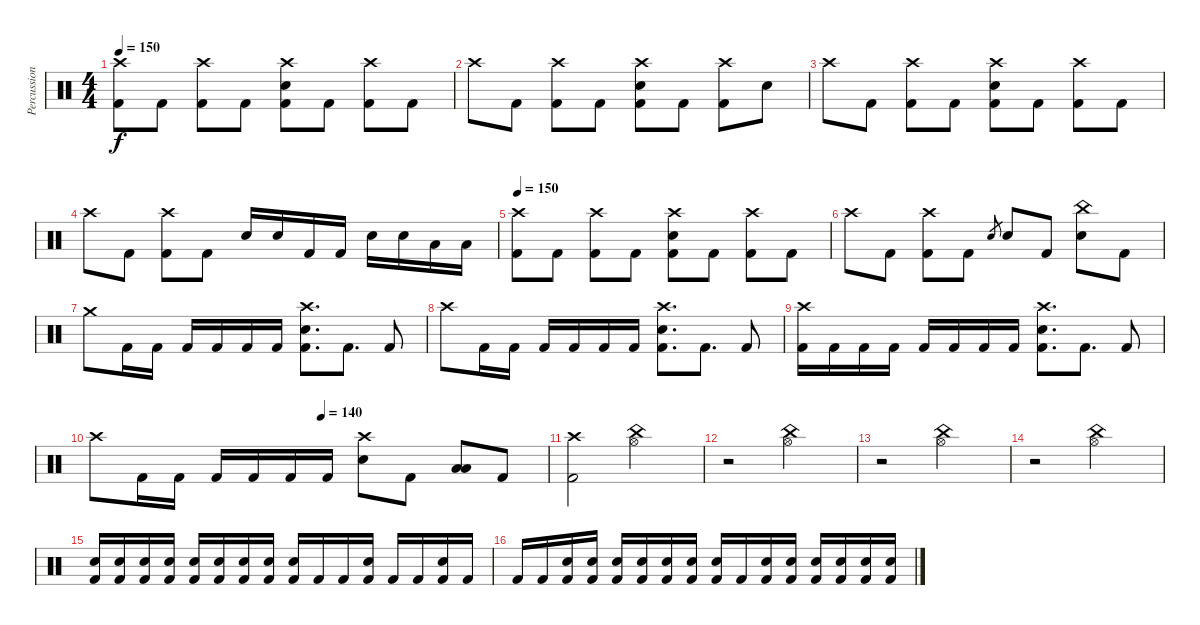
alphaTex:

\track ("Percussion" "Percussion") {instrument percussion}
\staff {score}
\articulation defaults
\ts (4 4)
\tempo 150
\clef neutral
\ks c
("Crash high (hit)" "Kick (hit) 2").8{dy f} "Kick (hit) 2".8 ("Crash high (hit)" "Kick (hit) 2").8 "Kick (hit) 2".8 ("Crash high (hit)" "Electric Snare (hit)" "Kick (hit) 2").8 "Kick (hit) 2".8 ("Crash high (hit)" "Kick (hit) 2").8 "Kick (hit) 2".8 |
"Crash high (hit)".8 "Kick (hit) 2".8 ("Crash high (hit)" "Kick (hit) 2").8 "Kick (hit) 2".8 ("Crash high (hit)" "Electric Snare (hit)" "Kick (hit) 2").8 "Kick (hit) 2".8 ("Crash high (hit)" "Kick (hit) 2").8 "Electric Snare (hit)".8 |
"Crash high (hit)".8 "Kick (hit) 2".8 ("Crash high (hit)" "Kick (hit) 2").8 "Kick (hit) 2".8 ("Crash high (hit)" "Electric Snare (hit)" "Kick (hit) 2").8 "Kick (hit) 2".8 ("Crash high (hit)" "Kick (hit) 2").8 "Kick (hit) 2".8 |
"Crash high (hit)".8 "Kick (hit) 2".8 ("Crash high (hit)" "Kick (hit) 2").8 "Kick (hit) 2".8 "Electric Snare (hit)".16 "Electric Snare (hit)".16 "Kick (hit) 2".16 "Kick (hit) 2".16 "Electric Snare (hit)".16 "Electric Snare (hit)".16 "Low Tom (hit)".16 "Low Tom (hit)".16 |
\tempo 150
("Crash high (hit)" "Kick (hit) 2").8 "Kick (hit) 2".8 ("Crash high (hit)" "Kick (hit) 2").8 "Kick (hit) 2".8 ("Crash high (hit)" "Electric Snare (hit)" "Kick (hit) 2").8 "Kick (hit) 2".8 ("Crash high (hit)" "Kick (hit) 2").8 "Kick (hit) 2".8 |
"Crash high (hit)".8 "Kick (hit) 2".8 ("Crash high (hit)" "Kick (hit) 2").8 "Kick (hit) 2".8 "Electric Snare (hit)".8{gr} "Electric Snare (hit)".8 "Kick (hit) 2".8 ("China (hit)" "Electric Snare (hit)").8 "Kick (hit) 2".8 |
"Crash medium (hit)".8 "Kick (hit) 2".16 "Kick (hit) 2".16 "Kick (hit) 2".16 "Kick (hit) 2".16 "Kick (hit) 2".16 "Kick (hit) 2".16 ("Crash high (hit)" "Electric Snare (hit)" "Kick (hit) 2").8{d} "Kick (hit) 2".8{d} "Kick (hit) 2".8 |
"Crash high (hit)".8 "Kick (hit) 2".16 "Kick (hit) 2".16 "Kick (hit) 2".16 "Kick (hit) 2".16 "Kick (hit) 2".16 "Kick (hit) 2".16 ("Crash high (hit)" "Electric Snare (hit)" "Kick (hit) 2").8{d} "Kick (hit) 2".8{d} "Kick (hit) 2".8 |
("Crash high (hit)" "Kick (hit) 2").16 "Kick (hit) 2".16 "Kick (hit) 2".16 "Kick (hit) 2".16 "Kick (hit) 2".16 "Kick (hit) 2".16 "Kick (hit) 2".16 "Kick (hit) 2".16 ("Crash high (hit)" "Electric Snare (hit)" "Kick (hit) 2").8{d} "Kick (hit) 2".8{d} "Kick (hit) 2".8 |
\tempo (140 0.5)
"Crash high (hit)".8 "Kick (hit) 2".16 "Kick (hit) 2".16 "Kick (hit) 2".16 "Kick (hit) 2".16 "Kick (hit) 2".16 "Kick (hit) 2".16 ("Crash high (hit)" "Electric Snare (hit)").8 "Kick (hit) 2".8 ("Low Tom (hit)" "Low Floor Tom (hit)").8 "Kick (hit) 2".8 |
("Crash high (hit)" "Kick (hit) 2").2 ("China (hit)" "Hi-Hat (open)").2 |
r.2 ("China (hit)" "Hi-Hat (open)").2 |
r.2 ("China (hit)" "Hi-Hat (open)").2 |
r.2 ("China (hit)" "Hi-Hat (open)").2 |
("Electric Snare (hit)" "Kick (hit) 2").16 ("Electric Snare (hit)" "Kick (hit) 2").16 ("Electric Snare (hit)" "Kick (hit) 2").16 ("Electric Snare (hit)" "Kick (hit) 2").16 ("Electric Snare (hit)" "Kick (hit) 2").16 ("Electric Snare (hit)" "Kick (hit) 2").16 ("Electric Snare (hit)" "Kick (hit) 2").16 ("Electric Snare (hit)" "Kick (hit) 2").16 ("Electric Snare (hit)" "Kick (hit) 2").16 "Kick (hit) 2".16 "Kick (hit) 2".16 ("Electric Snare (hit)" "Kick (hit) 2").16 "Kick (hit) 2".16 "Kick (hit) 2".16 ("Electric Snare (hit)" "Kick (hit) 2").16 "Kick (hit) 2".16 |
"Kick (hit) 2".16 "Kick (hit) 2".16 ("Electric Snare (hit)" "Kick (hit) 2").16 ("Electric Snare (hit)" "Kick (hit) 2").16 ("Electric Snare (hit)" "Kick (hit) 2").16 ("Electric Snare (hit)" "Kick (hit) 2").16 ("Electric Snare (hit)" "Kick (hit) 2").16 ("Electric Snare (hit)" "Kick (hit) 2").16 ("Electric Snare (hit)" "Kick (hit) 2").16 "Kick (hit) 2".16 ("Electric Snare (hit)" "Kick (hit) 2").16 ("Electric Snare (hit)" "Kick (hit) 2").16 ("Electric Snare (hit)" "Kick (hit) 2").16 ("Electric Snare (hit)" "Kick (hit) 2").16 ("Electric Snare (hit)" "Kick (hit) 2").16 ("Electric Snare (hit)" "Kick (hit) 2").16
